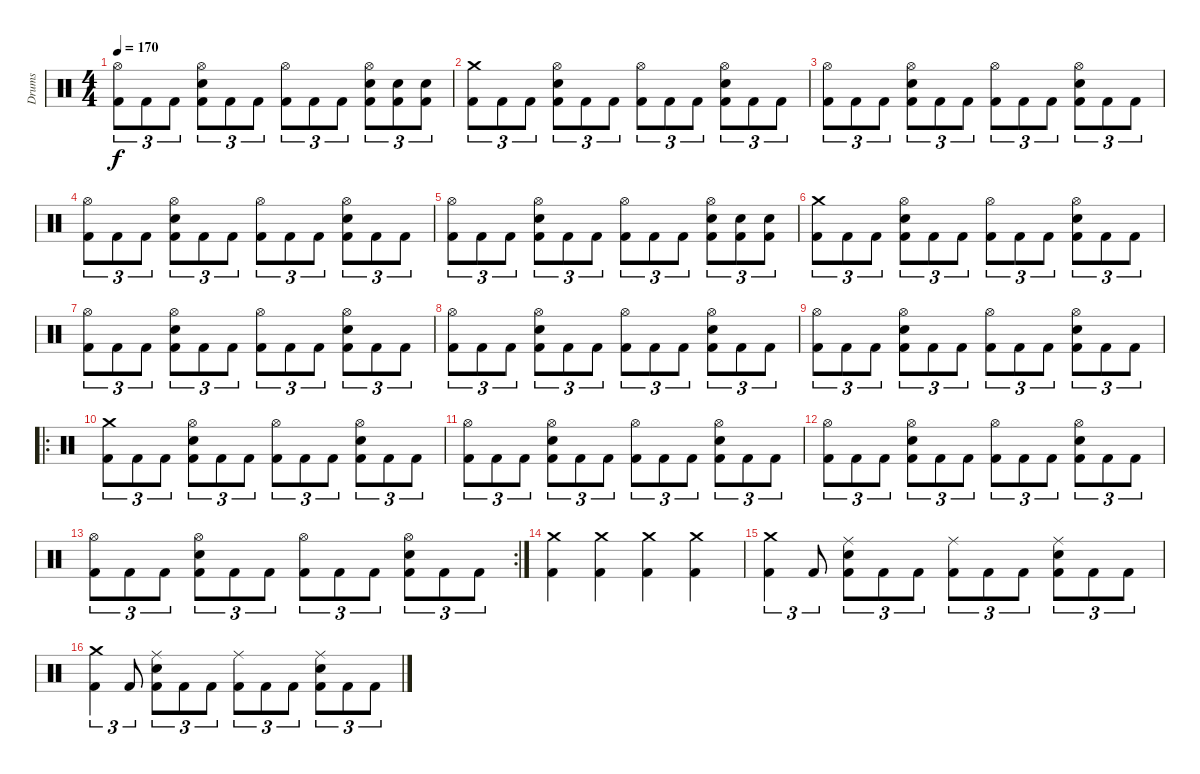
\track ("Drums" "Drums") {instrument percussion}
\staff {score}
\articulation defaults
\ts (4 4)
\tempo 170
\clef neutral
\ks c
("Hi-Hat (open)" "Kick (hit) 2").8{tu (3 2) dy f} "Kick (hit) 2".8{tu (3 2)} "Kick (hit) 2".8{tu (3 2)} ("Hi-Hat (open)" "Kick (hit) 2" "Snare (hit) 2").8{tu (3 2)} "Kick (hit) 2".8{tu (3 2)} "Kick (hit) 2".8{tu (3 2)} ("Hi-Hat (open)" "Kick (hit) 2").8{tu (3 2)} "Kick (hit) 2".8{tu (3 2)} "Kick (hit) 2".8{tu (3 2)} ("Hi-Hat (open)" "Snare (hit) 2" "Kick (hit) 2").8{tu (3 2)} ("Snare (hit) 2" "Kick (hit) 2").8{tu (3 2)} ("Snare (hit) 2" "Kick (hit) 2").8{tu (3 2)} |
("Crash medium (hit)" "Kick (hit) 2").8{tu (3 2)} "Kick (hit) 2".8{tu (3 2)} "Kick (hit) 2".8{tu (3 2)} ("Hi-Hat (open)" "Kick (hit) 2" "Snare (hit) 2").8{tu (3 2)} "Kick (hit) 2".8{tu (3 2)} "Kick (hit) 2".8{tu (3 2)} ("Hi-Hat (open)" "Kick (hit) 2").8{tu (3 2)} "Kick (hit) 2".8{tu (3 2)} "Kick (hit) 2".8{tu (3 2)} ("Hi-Hat (open)" "Snare (hit) 2" "Kick (hit) 2").8{tu (3 2)} "Kick (hit) 2".8{tu (3 2)} "Kick (hit) 2".8{tu (3 2)} |
("Hi-Hat (open)" "Kick (hit) 2").8{tu (3 2)} "Kick (hit) 2".8{tu (3 2)} "Kick (hit) 2".8{tu (3 2)} ("Hi-Hat (open)" "Kick (hit) 2" "Snare (hit) 2").8{tu (3 2)} "Kick (hit) 2".8{tu (3 2)} "Kick (hit) 2".8{tu (3 2)} ("Hi-Hat (open)" "Kick (hit) 2").8{tu (3 2)} "Kick (hit) 2".8{tu (3 2)} "Kick (hit) 2".8{tu (3 2)} ("Hi-Hat (open)" "Snare (hit) 2" "Kick (hit) 2").8{tu (3 2)} "Kick (hit) 2".8{tu (3 2)} "Kick (hit) 2".8{tu (3 2)} |
("Hi-Hat (open)" "Kick (hit) 2").8{tu (3 2)} "Kick (hit) 2".8{tu (3 2)} "Kick (hit) 2".8{tu (3 2)} ("Hi-Hat (open)" "Kick (hit) 2" "Snare (hit) 2").8{tu (3 2)} "Kick (hit) 2".8{tu (3 2)} "Kick (hit) 2".8{tu (3 2)} ("Hi-Hat (open)" "Kick (hit) 2").8{tu (3 2)} "Kick (hit) 2".8{tu (3 2)} "Kick (hit) 2".8{tu (3 2)} ("Hi-Hat (open)" "Snare (hit) 2" "Kick (hit) 2").8{tu (3 2)} "Kick (hit) 2".8{tu (3 2)} "Kick (hit) 2".8{tu (3 2)} |
("Hi-Hat (open)" "Kick (hit) 2").8{tu (3 2)} "Kick (hit) 2".8{tu (3 2)} "Kick (hit) 2".8{tu (3 2)} ("Hi-Hat (open)" "Kick (hit) 2" "Snare (hit) 2").8{tu (3 2)} "Kick (hit) 2".8{tu (3 2)} "Kick (hit) 2".8{tu (3 2)} ("Hi-Hat (open)" "Kick (hit) 2").8{tu (3 2)} "Kick (hit) 2".8{tu (3 2)} "Kick (hit) 2".8{tu (3 2)} ("Hi-Hat (open)" "Snare (hit) 2" "Kick (hit) 2").8{tu (3 2)} ("Snare (hit) 2" "Kick (hit) 2").8{tu (3 2)} ("Snare (hit) 2" "Kick (hit) 2").8{tu (3 2)} |
("Crash medium (hit)" "Kick (hit) 2").8{tu (3 2)} "Kick (hit) 2".8{tu (3 2)} "Kick (hit) 2".8{tu (3 2)} ("Hi-Hat (open)" "Kick (hit) 2" "Snare (hit) 2").8{tu (3 2)} "Kick (hit) 2".8{tu (3 2)} "Kick (hit) 2".8{tu (3 2)} ("Hi-Hat (open)" "Kick (hit) 2").8{tu (3 2)} "Kick (hit) 2".8{tu (3 2)} "Kick (hit) 2".8{tu (3 2)} ("Hi-Hat (open)" "Snare (hit) 2" "Kick (hit) 2").8{tu (3 2)} "Kick (hit) 2".8{tu (3 2)} "Kick (hit) 2".8{tu (3 2)} |
("Hi-Hat (open)" "Kick (hit) 2").8{tu (3 2)} "Kick (hit) 2".8{tu (3 2)} "Kick (hit) 2".8{tu (3 2)} ("Hi-Hat (open)" "Kick (hit) 2" "Snare (hit) 2").8{tu (3 2)} "Kick (hit) 2".8{tu (3 2)} "Kick (hit) 2".8{tu (3 2)} ("Hi-Hat (open)" "Kick (hit) 2").8{tu (3 2)} "Kick (hit) 2".8{tu (3 2)} "Kick (hit) 2".8{tu (3 2)} ("Hi-Hat (open)" "Snare (hit) 2" "Kick (hit) 2").8{tu (3 2)} "Kick (hit) 2".8{tu (3 2)} "Kick (hit) 2".8{tu (3 2)} |
("Hi-Hat (open)" "Kick (hit) 2").8{tu (3 2)} "Kick (hit) 2".8{tu (3 2)} "Kick (hit) 2".8{tu (3 2)} ("Hi-Hat (open)" "Kick (hit) 2" "Snare (hit) 2").8{tu (3 2)} "Kick (hit) 2".8{tu (3 2)} "Kick (hit) 2".8{tu (3 2)} ("Hi-Hat (open)" "Kick (hit) 2").8{tu (3 2)} "Kick (hit) 2".8{tu (3 2)} "Kick (hit) 2".8{tu (3 2)} ("Hi-Hat (open)" "Snare (hit) 2" "Kick (hit) 2").8{tu (3 2)} "Kick (hit) 2".8{tu (3 2)} "Kick (hit) 2".8{tu (3 2)} |
("Hi-Hat (open)" "Kick (hit) 2").8{tu (3 2)} "Kick (hit) 2".8{tu (3 2)} "Kick (hit) 2".8{tu (3 2)} ("Hi-Hat (open)" "Kick (hit) 2" "Snare (hit) 2").8{tu (3 2)} "Kick (hit) 2".8{tu (3 2)} "Kick (hit) 2".8{tu (3 2)} ("Hi-Hat (open)" "Kick (hit) 2").8{tu (3 2)} "Kick (hit) 2".8{tu (3 2)} "Kick (hit) 2".8{tu (3 2)} ("Hi-Hat (open)" "Snare (hit) 2" "Kick (hit) 2").8{tu (3 2)} "Kick (hit) 2".8{tu (3 2)} "Kick (hit) 2".8{tu (3 2)} |
\ro
("Crash medium (hit)" "Kick (hit) 2").8{tu (3 2)} "Kick (hit) 2".8{tu (3 2)} "Kick (hit) 2".8{tu (3 2)} ("Hi-Hat (open)" "Kick (hit) 2" "Snare (hit) 2").8{tu (3 2)} "Kick (hit) 2".8{tu (3 2)} "Kick (hit) 2".8{tu (3 2)} ("Hi-Hat (open)" "Kick (hit) 2").8{tu (3 2)} "Kick (hit) 2".8{tu (3 2)} "Kick (hit) 2".8{tu (3 2)} ("Hi-Hat (open)" "Snare (hit) 2" "Kick (hit) 2").8{tu (3 2)} "Kick (hit) 2".8{tu (3 2)} "Kick (hit) 2".8{tu (3 2)} |
("Hi-Hat (open)" "Kick (hit) 2").8{tu (3 2)} "Kick (hit) 2".8{tu (3 2)} "Kick (hit) 2".8{tu (3 2)} ("Hi-Hat (open)" "Kick (hit) 2" "Snare (hit) 2").8{tu (3 2)} "Kick (hit) 2".8{tu (3 2)} "Kick (hit) 2".8{tu (3 2)} ("Hi-Hat (open)" "Kick (hit) 2").8{tu (3 2)} "Kick (hit) 2".8{tu (3 2)} "Kick (hit) 2".8{tu (3 2)} ("Hi-Hat (open)" "Snare (hit) 2" "Kick (hit) 2").8{tu (3 2)} "Kick (hit) 2".8{tu (3 2)} "Kick (hit) 2".8{tu (3 2)} |
("Hi-Hat (open)" "Kick (hit) 2").8{tu (3 2)} "Kick (hit) 2".8{tu (3 2)} "Kick (hit) 2".8{tu (3 2)} ("Hi-Hat (open)" "Kick (hit) 2" "Snare (hit) 2").8{tu (3 2)} "Kick (hit) 2".8{tu (3 2)} "Kick (hit) 2".8{tu (3 2)} ("Hi-Hat (open)" "Kick (hit) 2").8{tu (3 2)} "Kick (hit) 2".8{tu (3 2)} "Kick (hit) 2".8{tu (3 2)} ("Hi-Hat (open)" "Snare (hit) 2" "Kick (hit) 2").8{tu (3 2)} "Kick (hit) 2".8{tu (3 2)} "Kick (hit) 2".8{tu (3 2)} |
\rc 2
("Hi-Hat (open)" "Kick (hit) 2").8{tu (3 2)} "Kick (hit) 2".8{tu (3 2)} "Kick (hit) 2".8{tu (3 2)} ("Hi-Hat (open)" "Kick (hit) 2" "Snare (hit) 2").8{tu (3 2)} "Kick (hit) 2".8{tu (3 2)} "Kick (hit) 2".8{tu (3 2)} ("Hi-Hat (open)" "Kick (hit) 2").8{tu (3 2)} "Kick (hit) 2".8{tu (3 2)} "Kick (hit) 2".8{tu (3 2)} ("Hi-Hat (open)" "Snare (hit) 2" "Kick (hit) 2").8{tu (3 2)} "Kick (hit) 2".8{tu (3 2)} "Kick (hit) 2".8{tu (3 2)} |
("Crash medium (hit)" "Kick (hit) 2").4 ("Crash medium (hit)" "Kick (hit) 2").4 ("Crash medium (hit)" "Kick (hit) 2").4 ("Crash medium (hit)" "Kick (hit) 2").4 |
("Crash medium (hit)" "Kick (hit) 2").4{tu (3 2)} "Kick (hit) 2".8{tu (3 2)} ("Ride (middle)" "Snare (hit) 2" "Kick (hit) 2").8{tu (3 2)} "Kick (hit) 2".8{tu (3 2)} "Kick (hit) 2".8{tu (3 2)} ("Ride (middle)" "Kick (hit) 2").8{tu (3 2)} "Kick (hit) 2".8{tu (3 2)} "Kick (hit) 2".8{tu (3 2)} ("Ride (middle)" "Snare (hit) 2" "Kick (hit) 2").8{tu (3 2)} "Kick (hit) 2".8{tu (3 2)} "Kick (hit) 2".8{tu (3 2)} |
("Crash medium (hit)" "Kick (hit) 2").4{tu (3 2)} "Kick (hit) 2".8{tu (3 2)} ("Ride (middle)" "Snare (hit) 2" "Kick (hit) 2").8{tu (3 2)} "Kick (hit) 2".8{tu (3 2)} "Kick (hit) 2".8{tu (3 2)} ("Ride (middle)" "Kick (hit) 2").8{tu (3 2)} "Kick (hit) 2".8{tu (3 2)} "Kick (hit) 2".8{tu (3 2)} ("Ride (middle)" "Snare (hit) 2" "Kick (hit) 2").8{tu (3 2)} "Kick (hit) 2".8{tu (3 2)} "Kick (hit) 2".8{tu (3 2)}
